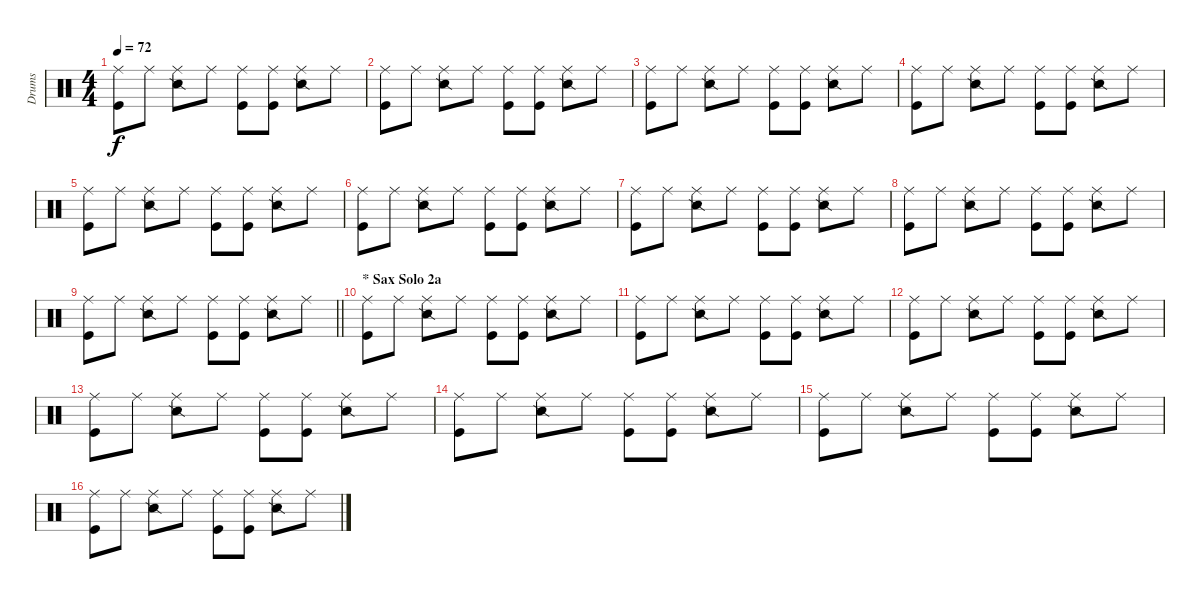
\track ("Drums" "Drums") {instrument percussion}
\staff {score}
\articulation defaults
\ts (4 4)
\tempo 72
\clef neutral
\ks c
("Ride (middle)" "Kick (hit)").8{dy f} "Ride (middle)".8 ("Ride (middle)" "Snare (side stick) 2").8 "Ride (middle)".8 ("Ride (middle)" "Kick (hit)").8 ("Ride (middle)" "Kick (hit)").8 ("Ride (middle)" "Snare (side stick) 2").8 "Ride (middle)".8 |
("Ride (middle)" "Kick (hit)").8 "Ride (middle)".8 ("Ride (middle)" "Snare (side stick) 2").8 "Ride (middle)".8 ("Ride (middle)" "Kick (hit)").8 ("Ride (middle)" "Kick (hit)").8 ("Ride (middle)" "Snare (side stick) 2").8 "Ride (middle)".8 |
("Ride (middle)" "Kick (hit)").8 "Ride (middle)".8 ("Ride (middle)" "Snare (side stick) 2").8 "Ride (middle)".8 ("Ride (middle)" "Kick (hit)").8 ("Ride (middle)" "Kick (hit)").8 ("Ride (middle)" "Snare (side stick) 2").8 "Ride (middle)".8 |
("Ride (middle)" "Kick (hit)").8 "Ride (middle)".8 ("Ride (middle)" "Snare (side stick) 2").8 "Ride (middle)".8 ("Ride (middle)" "Kick (hit)").8 ("Ride (middle)" "Kick (hit)").8 ("Ride (middle)" "Snare (side stick) 2").8 "Ride (middle)".8 |
("Ride (middle)" "Kick (hit)").8 "Ride (middle)".8 ("Ride (middle)" "Snare (side stick) 2").8 "Ride (middle)".8 ("Ride (middle)" "Kick (hit)").8 ("Ride (middle)" "Kick (hit)").8 ("Ride (middle)" "Snare (side stick) 2").8 "Ride (middle)".8 |
("Ride (middle)" "Kick (hit)").8 "Ride (middle)".8 ("Ride (middle)" "Snare (side stick) 2").8 "Ride (middle)".8 ("Ride (middle)" "Kick (hit)").8 ("Ride (middle)" "Kick (hit)").8 ("Ride (middle)" "Snare (side stick) 2").8 "Ride (middle)".8 |
("Ride (middle)" "Kick (hit)").8 "Ride (middle)".8 ("Ride (middle)" "Snare (side stick) 2").8 "Ride (middle)".8 ("Ride (middle)" "Kick (hit)").8 ("Ride (middle)" "Kick (hit)").8 ("Ride (middle)" "Snare (side stick) 2").8 "Ride (middle)".8 |
("Ride (middle)" "Kick (hit)").8 "Ride (middle)".8 ("Ride (middle)" "Snare (side stick) 2").8 "Ride (middle)".8 ("Ride (middle)" "Kick (hit)").8 ("Ride (middle)" "Kick (hit)").8 ("Ride (middle)" "Snare (side stick) 2").8 "Ride (middle)".8 |
\barLineRight lightlight
("Ride (middle)" "Kick (hit)").8 "Ride (middle)".8 ("Ride (middle)" "Snare (side stick) 2").8 "Ride (middle)".8 ("Ride (middle)" "Kick (hit)").8 ("Ride (middle)" "Kick (hit)").8 ("Ride (middle)" "Snare (side stick) 2").8 "Ride (middle)".8 |
\section ("" "* Sax Solo 2a")
("Ride (middle)" "Kick (hit)").8 "Ride (middle)".8 ("Ride (middle)" "Snare (side stick) 2").8 "Ride (middle)".8 ("Ride (middle)" "Kick (hit)").8 ("Ride (middle)" "Kick (hit)").8 ("Ride (middle)" "Snare (side stick) 2").8 "Ride (middle)".8 |
("Ride (middle)" "Kick (hit)").8 "Ride (middle)".8 ("Ride (middle)" "Snare (side stick) 2").8 "Ride (middle)".8 ("Ride (middle)" "Kick (hit)").8 ("Ride (middle)" "Kick (hit)").8 ("Ride (middle)" "Snare (side stick) 2").8 "Ride (middle)".8 |
("Ride (middle)" "Kick (hit)").8 "Ride (middle)".8 ("Ride (middle)" "Snare (side stick) 2").8 "Ride (middle)".8 ("Ride (middle)" "Kick (hit)").8 ("Ride (middle)" "Kick (hit)").8 ("Ride (middle)" "Snare (side stick) 2").8 "Ride (middle)".8 |
("Ride (middle)" "Kick (hit)").8 "Ride (middle)".8 ("Ride (middle)" "Snare (side stick) 2").8 "Ride (middle)".8 ("Ride (middle)" "Kick (hit)").8 ("Ride (middle)" "Kick (hit)").8 ("Ride (middle)" "Snare (side stick) 2").8 "Ride (middle)".8 |
("Ride (middle)" "Kick (hit)").8 "Ride (middle)".8 ("Ride (middle)" "Snare (side stick) 2").8 "Ride (middle)".8 ("Ride (middle)" "Kick (hit)").8 ("Ride (middle)" "Kick (hit)").8 ("Ride (middle)" "Snare (side stick) 2").8 "Ride (middle)".8 |
("Ride (middle)" "Kick (hit)").8 "Ride (middle)".8 ("Ride (middle)" "Snare (side stick) 2").8 "Ride (middle)".8 ("Ride (middle)" "Kick (hit)").8 ("Ride (middle)" "Kick (hit)").8 ("Ride (middle)" "Snare (side stick) 2").8 "Ride (middle)".8 |
("Ride (middle)" "Kick (hit)").8 "Ride (middle)".8 ("Ride (middle)" "Snare (side stick) 2").8 "Ride (middle)".8 ("Ride (middle)" "Kick (hit)").8 ("Ride (middle)" "Kick (hit)").8 ("Ride (middle)" "Snare (side stick) 2").8 "Ride (middle)".8
